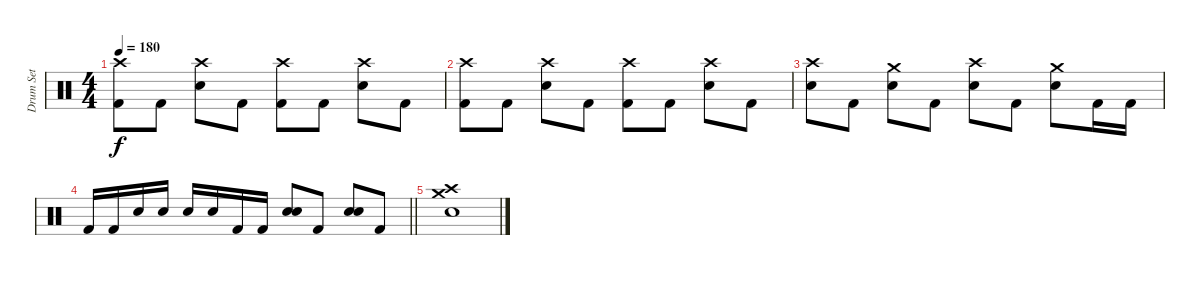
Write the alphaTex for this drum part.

\track ("Drum Set" "Drum Set") {instrument percussion}
\staff {score}
\articulation defaults
\ts (4 4)
\tempo 180
\clef neutral
\ks c
("Crash high (hit)" "Kick (hit) 2").8{dy f} "Kick (hit) 2".8 ("Crash high (hit)" "Snare (hit) 2").8 "Kick (hit) 2".8 ("Crash high (hit)" "Kick (hit) 2").8 "Kick (hit) 2".8 ("Crash high (hit)" "Snare (hit) 2").8 "Kick (hit) 2".8 |
("Crash high (hit)" "Kick (hit) 2").8 "Kick (hit) 2".8 ("Crash high (hit)" "Snare (hit) 2").8 "Kick (hit) 2".8 ("Crash high (hit)" "Kick (hit) 2").8 "Kick (hit) 2".8 ("Crash high (hit)" "Snare (hit) 2").8 "Kick (hit) 2".8 |
("Crash high (hit)" "Snare (hit) 2").8 "Kick (hit) 2".8 ("Crash medium (hit)" "Snare (hit) 2").8 "Kick (hit) 2".8 ("Crash high (hit)" "Snare (hit) 2").8 "Kick (hit) 2".8 ("Crash medium (hit)" "Snare (hit) 2").8 "Kick (hit) 2".16 "Kick (hit) 2".16 |
\barLineRight lightlight "Kick (hit) 2".16 "Kick (hit) 2".16 "Snare (hit) 2".16 "Snare (hit) 2".16 "Snare (hit) 2".16 "Snare (hit) 2".16 "Kick (hit) 2".16 "Kick (hit) 2".16
("Snare (hit) 2" "Electric Snare (hit)").8 "Kick (hit) 2".8 ("Snare (hit) 2" "Electric Snare (hit)").8 "Kick (hit) 2".8 |
("Crash high (hit)" "Snare (hit) 2" "Crash medium (hit)").1
